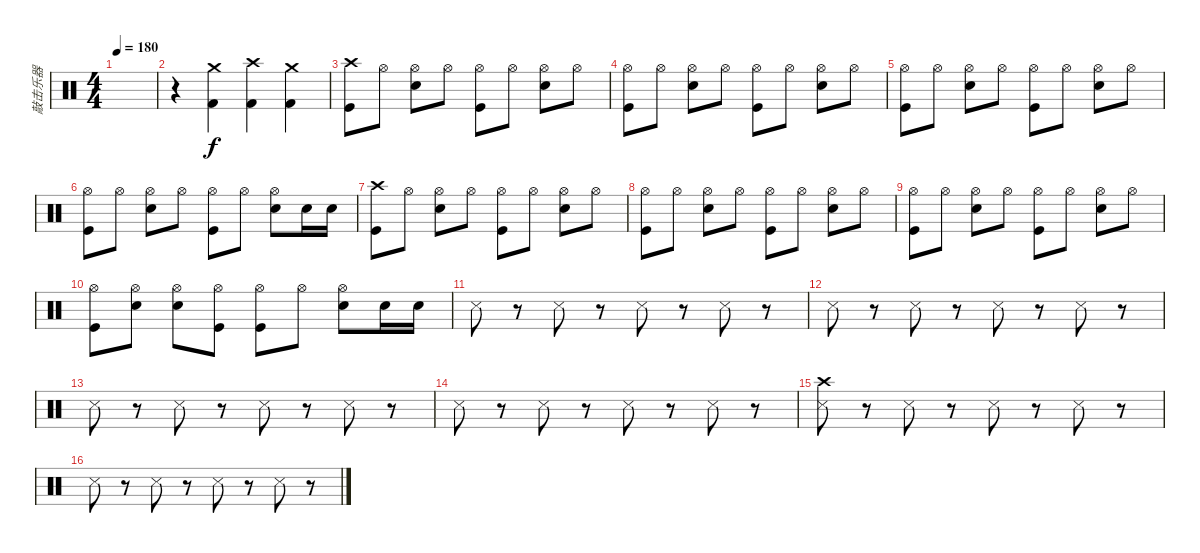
\track ("敲击乐器" "敲击乐器") {instrument percussion}
\staff {score}
\articulation defaults
\ts (4 4)
\tempo 180
\clef neutral
\ks c
|
r.4 ("Crash medium (hit)" "Kick (hit) 2").4 ("Crash high (hit)" "Kick (hit) 2").4 ("Crash medium (hit)" "Kick (hit) 2").4 |
("Crash high (hit)" "Kick (hit)").8 "Hi-Hat (open)".8 ("Hi-Hat (open)" "Snare (hit) 2").8 "Hi-Hat (open)".8 ("Hi-Hat (open)" "Kick (hit)").8 "Hi-Hat (open)".8 ("Hi-Hat (open)" "Snare (hit) 2").8 "Hi-Hat (open)".8 |
("Hi-Hat (open)" "Kick (hit)").8 "Hi-Hat (open)".8 ("Hi-Hat (open)" "Snare (hit) 2").8 "Hi-Hat (open)".8 ("Hi-Hat (open)" "Kick (hit)").8 "Hi-Hat (open)".8 ("Hi-Hat (open)" "Snare (hit) 2").8 "Hi-Hat (open)".8 |
("Hi-Hat (open)" "Kick (hit)").8 "Hi-Hat (open)".8 ("Hi-Hat (open)" "Snare (hit) 2").8 "Hi-Hat (open)".8 ("Hi-Hat (open)" "Kick (hit)").8 "Hi-Hat (open)".8 ("Hi-Hat (open)" "Snare (hit) 2").8 "Hi-Hat (open)".8 |
("Hi-Hat (open)" "Kick (hit)").8 "Hi-Hat (open)".8 ("Hi-Hat (open)" "Snare (hit) 2").8 "Hi-Hat (open)".8 ("Hi-Hat (open)" "Kick (hit)").8 "Hi-Hat (open)".8 ("Hi-Hat (open)" "Snare (hit) 2").8 "Snare (hit) 2".16 "Snare (hit) 2".16 |
("Crash high (hit)" "Kick (hit)").8 "Hi-Hat (open)".8 ("Hi-Hat (open)" "Snare (hit) 2").8 "Hi-Hat (open)".8 ("Hi-Hat (open)" "Kick (hit)").8 "Hi-Hat (open)".8 ("Hi-Hat (open)" "Snare (hit) 2").8 "Hi-Hat (open)".8 |
("Hi-Hat (open)" "Kick (hit)").8 "Hi-Hat (open)".8 ("Hi-Hat (open)" "Snare (hit) 2").8 "Hi-Hat (open)".8 ("Hi-Hat (open)" "Kick (hit)").8 "Hi-Hat (open)".8 ("Hi-Hat (open)" "Snare (hit) 2").8 "Hi-Hat (open)".8 |
("Hi-Hat (open)" "Kick (hit)").8 "Hi-Hat (open)".8 ("Hi-Hat (open)" "Snare (hit) 2").8 "Hi-Hat (open)".8 ("Hi-Hat (open)" "Kick (hit)").8 "Hi-Hat (open)".8 ("Hi-Hat (open)" "Snare (hit) 2").8 "Hi-Hat (open)".8 |
("Hi-Hat (open)" "Kick (hit)").8 ("Hi-Hat (open)" "Snare (hit) 2").8 ("Hi-Hat (open)" "Snare (hit) 2").8 ("Hi-Hat (open)" "Kick (hit)").8 ("Hi-Hat (open)" "Kick (hit)").8 "Hi-Hat (open)".8 ("Hi-Hat (open)" "Snare (hit) 2").8 "Snare (hit) 2".16 "Snare (hit) 2".16 |
"Snare (side stick) 3".8 r.8 "Snare (side stick) 3".8 r.8 "Snare (side stick) 3".8 r.8 "Snare (side stick) 3".8 r.8 |
"Snare (side stick) 3".8 r.8 "Snare (side stick) 3".8 r.8 "Snare (side stick) 3".8 r.8 "Snare (side stick) 3".8 r.8 |
"Snare (side stick) 3".8 r.8 "Snare (side stick) 3".8 r.8 "Snare (side stick) 3".8 r.8 "Snare (side stick) 3".8 r.8 |
"Snare (side stick) 3".8 r.8 "Snare (side stick) 3".8 r.8 "Snare (side stick) 3".8 r.8 "Snare (side stick) 3".8 r.8 |
("Crash high (hit)" "Snare (side stick) 3").8 r.8 "Snare (side stick) 3".8 r.8 "Snare (side stick) 3".8 r.8 "Snare (side stick) 3".8 r.8 |
"Snare (side stick) 3".8 r.8 "Snare (side stick) 3".8 r.8 "Snare (side stick) 3".8 r.8 "Snare (side stick) 3".8 r.8
